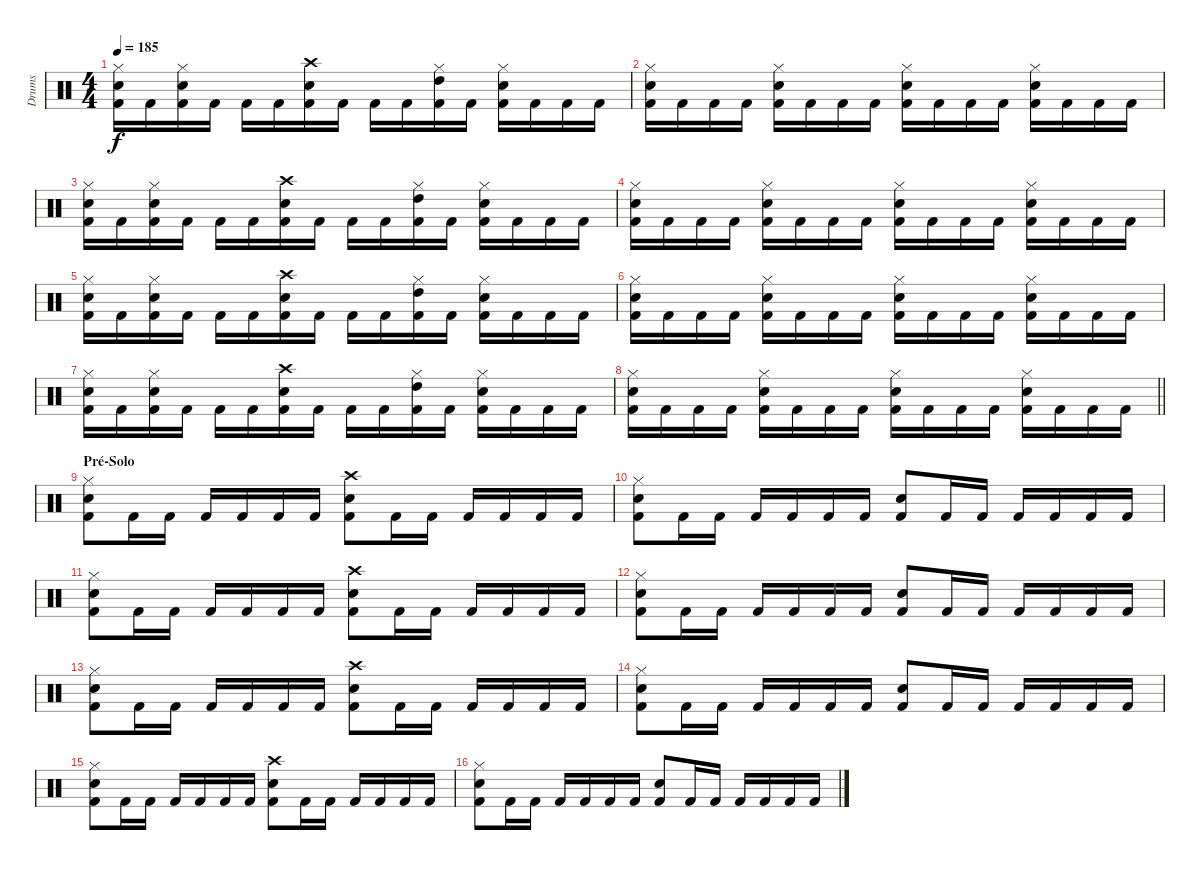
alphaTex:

\track ("Drums" "Drums") {instrument percussion}
\staff {score}
\articulation defaults
\ts (4 4)
\tempo 185
\clef neutral
\ks c
("Hi-Hat (closed)" "Electric Snare (hit)" "Kick (hit) 2").16{dy f} "Kick (hit) 2".16 ("Hi-Hat (closed)" "Electric Snare (hit)" "Kick (hit) 2").16 "Kick (hit) 2".16 "Kick (hit) 2".16 "Kick (hit) 2".16 ("Crash high (hit)" "Electric Snare (hit)" "Kick (hit) 2").16 "Kick (hit) 2".16 "Kick (hit) 2".16 "Kick (hit) 2".16 ("Hi-Hat (closed)" "High Tom (hit)" "Kick (hit) 2").16 "Kick (hit) 2".16 ("Hi-Hat (closed)" "Electric Snare (hit)" "Kick (hit) 2").16 "Kick (hit) 2".16 "Kick (hit) 2".16 "Kick (hit) 2".16 |
("Electric Snare (hit)" "Hi-Hat (closed)" "Kick (hit) 2").16 "Kick (hit) 2".16 "Kick (hit) 2".16 "Kick (hit) 2".16 ("Hi-Hat (closed)" "Electric Snare (hit)" "Kick (hit) 2").16 "Kick (hit) 2".16 "Kick (hit) 2".16 "Kick (hit) 2".16 ("Electric Snare (hit)" "Hi-Hat (closed)" "Kick (hit) 2").16 "Kick (hit) 2".16 "Kick (hit) 2".16 "Kick (hit) 2".16 ("Hi-Hat (closed)" "Electric Snare (hit)" "Kick (hit) 2").16 "Kick (hit) 2".16 "Kick (hit) 2".16 "Kick (hit) 2".16 |
("Hi-Hat (closed)" "Electric Snare (hit)" "Kick (hit) 2").16 "Kick (hit) 2".16 ("Hi-Hat (closed)" "Electric Snare (hit)" "Kick (hit) 2").16 "Kick (hit) 2".16 "Kick (hit) 2".16 "Kick (hit) 2".16 ("Crash high (hit)" "Electric Snare (hit)" "Kick (hit) 2").16 "Kick (hit) 2".16 "Kick (hit) 2".16 "Kick (hit) 2".16 ("Hi-Hat (closed)" "High Tom (hit)" "Kick (hit) 2").16 "Kick (hit) 2".16 ("Hi-Hat (closed)" "Electric Snare (hit)" "Kick (hit) 2").16 "Kick (hit) 2".16 "Kick (hit) 2".16 "Kick (hit) 2".16 |
("Electric Snare (hit)" "Hi-Hat (closed)" "Kick (hit) 2").16 "Kick (hit) 2".16 "Kick (hit) 2".16 "Kick (hit) 2".16 ("Hi-Hat (closed)" "Electric Snare (hit)" "Kick (hit) 2").16 "Kick (hit) 2".16 "Kick (hit) 2".16 "Kick (hit) 2".16 ("Electric Snare (hit)" "Hi-Hat (closed)" "Kick (hit) 2").16 "Kick (hit) 2".16 "Kick (hit) 2".16 "Kick (hit) 2".16 ("Hi-Hat (closed)" "Electric Snare (hit)" "Kick (hit) 2").16 "Kick (hit) 2".16 "Kick (hit) 2".16 "Kick (hit) 2".16 |
("Hi-Hat (closed)" "Electric Snare (hit)" "Kick (hit) 2").16 "Kick (hit) 2".16 ("Hi-Hat (closed)" "Electric Snare (hit)" "Kick (hit) 2").16 "Kick (hit) 2".16 "Kick (hit) 2".16 "Kick (hit) 2".16 ("Crash high (hit)" "Electric Snare (hit)" "Kick (hit) 2").16 "Kick (hit) 2".16 "Kick (hit) 2".16 "Kick (hit) 2".16 ("Hi-Hat (closed)" "High Tom (hit)" "Kick (hit) 2").16 "Kick (hit) 2".16 ("Hi-Hat (closed)" "Electric Snare (hit)" "Kick (hit) 2").16 "Kick (hit) 2".16 "Kick (hit) 2".16 "Kick (hit) 2".16 |
("Electric Snare (hit)" "Hi-Hat (closed)" "Kick (hit) 2").16 "Kick (hit) 2".16 "Kick (hit) 2".16 "Kick (hit) 2".16 ("Hi-Hat (closed)" "Electric Snare (hit)" "Kick (hit) 2").16 "Kick (hit) 2".16 "Kick (hit) 2".16 "Kick (hit) 2".16 ("Electric Snare (hit)" "Hi-Hat (closed)" "Kick (hit) 2").16 "Kick (hit) 2".16 "Kick (hit) 2".16 "Kick (hit) 2".16 ("Hi-Hat (closed)" "Electric Snare (hit)" "Kick (hit) 2").16 "Kick (hit) 2".16 "Kick (hit) 2".16 "Kick (hit) 2".16 |
("Hi-Hat (closed)" "Electric Snare (hit)" "Kick (hit) 2").16 "Kick (hit) 2".16 ("Hi-Hat (closed)" "Electric Snare (hit)" "Kick (hit) 2").16 "Kick (hit) 2".16 "Kick (hit) 2".16 "Kick (hit) 2".16 ("Crash high (hit)" "Electric Snare (hit)" "Kick (hit) 2").16 "Kick (hit) 2".16 "Kick (hit) 2".16 "Kick (hit) 2".16 ("Hi-Hat (closed)" "High Tom (hit)" "Kick (hit) 2").16 "Kick (hit) 2".16 ("Hi-Hat (closed)" "Electric Snare (hit)" "Kick (hit) 2").16 "Kick (hit) 2".16 "Kick (hit) 2".16 "Kick (hit) 2".16 |
\barLineRight lightlight
("Electric Snare (hit)" "Hi-Hat (closed)" "Kick (hit) 2").16 "Kick (hit) 2".16 "Kick (hit) 2".16 "Kick (hit) 2".16 ("Hi-Hat (closed)" "Electric Snare (hit)" "Kick (hit) 2").16 "Kick (hit) 2".16 "Kick (hit) 2".16 "Kick (hit) 2".16 ("Electric Snare (hit)" "Hi-Hat (closed)" "Kick (hit) 2").16 "Kick (hit) 2".16 "Kick (hit) 2".16 "Kick (hit) 2".16 ("Hi-Hat (closed)" "Electric Snare (hit)" "Kick (hit) 2").16 "Kick (hit) 2".16 "Kick (hit) 2".16 "Kick (hit) 2".16 |
\section ("" "Pré-Solo")
("Hi-Hat (closed)" "Electric Snare (hit)" "Kick (hit) 2").8 "Kick (hit) 2".16 "Kick (hit) 2".16 "Kick (hit) 2".16 "Kick (hit) 2".16 "Kick (hit) 2".16 "Kick (hit) 2".16 ("Crash high (hit)" "Electric Snare (hit)" "Kick (hit) 2").8 "Kick (hit) 2".16 "Kick (hit) 2".16 "Kick (hit) 2".16 "Kick (hit) 2".16 "Kick (hit) 2".16 "Kick (hit) 2".16 |
("Hi-Hat (closed)" "Electric Snare (hit)" "Kick (hit) 2").8 "Kick (hit) 2".16 "Kick (hit) 2".16 "Kick (hit) 2".16 "Kick (hit) 2".16 "Kick (hit) 2".16 "Kick (hit) 2".16 ("Electric Snare (hit)" "Kick (hit) 2").8 "Kick (hit) 2".16 "Kick (hit) 2".16 "Kick (hit) 2".16 "Kick (hit) 2".16 "Kick (hit) 2".16 "Kick (hit) 2".16 |
("Hi-Hat (closed)" "Electric Snare (hit)" "Kick (hit) 2").8 "Kick (hit) 2".16 "Kick (hit) 2".16 "Kick (hit) 2".16 "Kick (hit) 2".16 "Kick (hit) 2".16 "Kick (hit) 2".16 ("Crash high (hit)" "Electric Snare (hit)" "Kick (hit) 2").8 "Kick (hit) 2".16 "Kick (hit) 2".16 "Kick (hit) 2".16 "Kick (hit) 2".16 "Kick (hit) 2".16 "Kick (hit) 2".16 |
("Hi-Hat (closed)" "Electric Snare (hit)" "Kick (hit) 2").8 "Kick (hit) 2".16 "Kick (hit) 2".16 "Kick (hit) 2".16 "Kick (hit) 2".16 "Kick (hit) 2".16 "Kick (hit) 2".16 ("Electric Snare (hit)" "Kick (hit) 2").8 "Kick (hit) 2".16 "Kick (hit) 2".16 "Kick (hit) 2".16 "Kick (hit) 2".16 "Kick (hit) 2".16 "Kick (hit) 2".16 |
("Hi-Hat (closed)" "Electric Snare (hit)" "Kick (hit) 2").8 "Kick (hit) 2".16 "Kick (hit) 2".16 "Kick (hit) 2".16 "Kick (hit) 2".16 "Kick (hit) 2".16 "Kick (hit) 2".16 ("Crash high (hit)" "Electric Snare (hit)" "Kick (hit) 2").8 "Kick (hit) 2".16 "Kick (hit) 2".16 "Kick (hit) 2".16 "Kick (hit) 2".16 "Kick (hit) 2".16 "Kick (hit) 2".16 |
("Hi-Hat (closed)" "Electric Snare (hit)" "Kick (hit) 2").8 "Kick (hit) 2".16 "Kick (hit) 2".16 "Kick (hit) 2".16 "Kick (hit) 2".16 "Kick (hit) 2".16 "Kick (hit) 2".16 ("Electric Snare (hit)" "Kick (hit) 2").8 "Kick (hit) 2".16 "Kick (hit) 2".16 "Kick (hit) 2".16 "Kick (hit) 2".16 "Kick (hit) 2".16 "Kick (hit) 2".16 |
("Hi-Hat (closed)" "Electric Snare (hit)" "Kick (hit) 2").8 "Kick (hit) 2".16 "Kick (hit) 2".16 "Kick (hit) 2".16 "Kick (hit) 2".16 "Kick (hit) 2".16 "Kick (hit) 2".16 ("Crash high (hit)" "Electric Snare (hit)" "Kick (hit) 2").8 "Kick (hit) 2".16 "Kick (hit) 2".16 "Kick (hit) 2".16 "Kick (hit) 2".16 "Kick (hit) 2".16 "Kick (hit) 2".16 |
("Hi-Hat (closed)" "Electric Snare (hit)" "Kick (hit) 2").8 "Kick (hit) 2".16 "Kick (hit) 2".16 "Kick (hit) 2".16 "Kick (hit) 2".16 "Kick (hit) 2".16 "Kick (hit) 2".16 ("Electric Snare (hit)" "Kick (hit) 2").8 "Kick (hit) 2".16 "Kick (hit) 2".16 "Kick (hit) 2".16 "Kick (hit) 2".16 "Kick (hit) 2".16 "Kick (hit) 2".16
